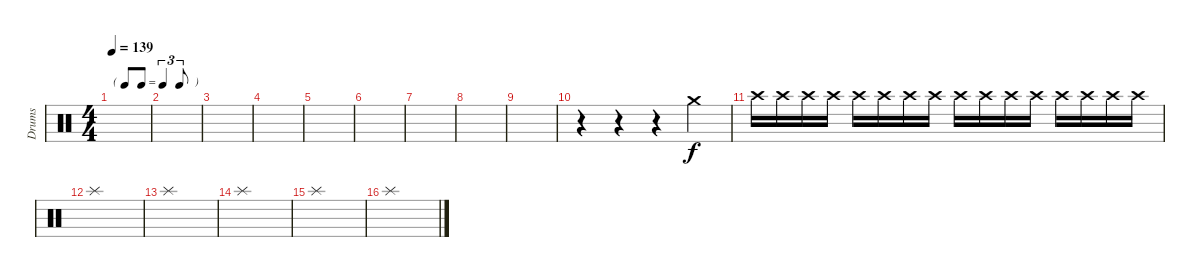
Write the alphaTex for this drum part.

\track ("Drums" "Drums") {instrument percussion}
\staff {score}
\articulation defaults
\ts (4 4)
\tf triplet8th
\tempo 139
\clef neutral
\ks c
|
|
|
|
|
|
|
|
|
r.4 r.4 r.4 "Crash medium (hit)".4 |
"Crash high (hit)".16 "Crash high (hit)".16 "Crash high (hit)".16 "Crash high (hit)".16 "Crash high (hit)".16 "Crash high (hit)".16 "Crash high (hit)".16 "Crash high (hit)".16 "Crash high (hit)".16 "Crash high (hit)".16 "Crash high (hit)".16 "Crash high (hit)".16 "Crash high (hit)".16 "Crash high (hit)".16 "Crash high (hit)".16 "Crash high (hit)".16 |
"Splash (hit)".1 |
"Splash (hit)".1 |
"Splash (hit)".1 |
"Splash (hit)".1 |
"Splash (hit)".1
